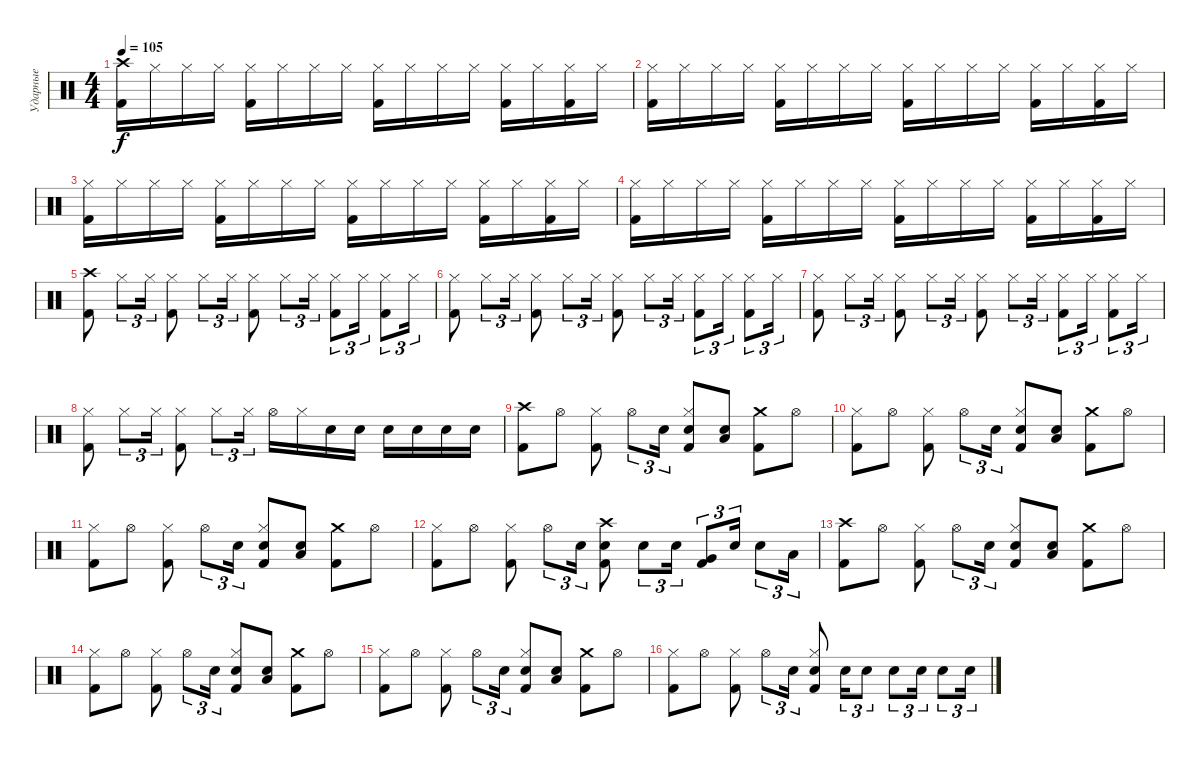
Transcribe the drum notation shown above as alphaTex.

\track ("Ударные" "Ударные") {instrument percussion}
\staff {score}
\articulation defaults
\ts (4 4)
\tempo 105
\clef neutral
\ks c
("Crash high (hit)" "Kick (hit) 2").16{dy f} "Hi-Hat (closed)".16 "Hi-Hat (closed)".16 "Hi-Hat (closed)".16 ("Hi-Hat (closed)" "Kick (hit) 2").16 "Hi-Hat (closed)".16 "Hi-Hat (closed)".16 "Hi-Hat (closed)".16 ("Hi-Hat (closed)" "Kick (hit) 2").16 "Hi-Hat (closed)".16 "Hi-Hat (closed)".16 "Hi-Hat (closed)".16 ("Hi-Hat (closed)" "Kick (hit) 2").16 "Hi-Hat (closed)".16 ("Hi-Hat (closed)" "Kick (hit) 2").16 "Hi-Hat (closed)".16 |
("Hi-Hat (closed)" "Kick (hit) 2").16 "Hi-Hat (closed)".16 "Hi-Hat (closed)".16 "Hi-Hat (closed)".16 ("Hi-Hat (closed)" "Kick (hit) 2").16 "Hi-Hat (closed)".16 "Hi-Hat (closed)".16 "Hi-Hat (closed)".16 ("Hi-Hat (closed)" "Kick (hit) 2").16 "Hi-Hat (closed)".16 "Hi-Hat (closed)".16 "Hi-Hat (closed)".16 ("Hi-Hat (closed)" "Kick (hit) 2").16 "Hi-Hat (closed)".16 ("Hi-Hat (closed)" "Kick (hit) 2").16 "Hi-Hat (closed)".16 |
("Hi-Hat (closed)" "Kick (hit) 2").16 "Hi-Hat (closed)".16 "Hi-Hat (closed)".16 "Hi-Hat (closed)".16 ("Hi-Hat (closed)" "Kick (hit) 2").16 "Hi-Hat (closed)".16 "Hi-Hat (closed)".16 "Hi-Hat (closed)".16 ("Hi-Hat (closed)" "Kick (hit) 2").16 "Hi-Hat (closed)".16 "Hi-Hat (closed)".16 "Hi-Hat (closed)".16 ("Hi-Hat (closed)" "Kick (hit) 2").16 "Hi-Hat (closed)".16 ("Hi-Hat (closed)" "Kick (hit) 2").16 "Hi-Hat (closed)".16 |
("Hi-Hat (closed)" "Kick (hit) 2").16 "Hi-Hat (closed)".16 "Hi-Hat (closed)".16 "Hi-Hat (closed)".16 ("Hi-Hat (closed)" "Kick (hit) 2").16 "Hi-Hat (closed)".16 "Hi-Hat (closed)".16 "Hi-Hat (closed)".16 ("Hi-Hat (closed)" "Kick (hit) 2").16 "Hi-Hat (closed)".16 "Hi-Hat (closed)".16 "Hi-Hat (closed)".16 ("Hi-Hat (closed)" "Kick (hit) 2").16 "Hi-Hat (closed)".16 ("Hi-Hat (closed)" "Kick (hit) 2").16 "Hi-Hat (closed)".16 |
("Crash high (hit)" "Kick (hit) 2").8 "Hi-Hat (closed)".8{tu (3 2)} "Hi-Hat (closed)".16{tu (3 2)} ("Hi-Hat (closed)" "Kick (hit) 2").8 "Hi-Hat (closed)".8{tu (3 2)} "Hi-Hat (closed)".16{tu (3 2)} ("Hi-Hat (closed)" "Kick (hit) 2").8 "Hi-Hat (closed)".8{tu (3 2)} "Hi-Hat (closed)".16{tu (3 2)} ("Hi-Hat (closed)" "Kick (hit) 2").8{tu (3 2)} "Hi-Hat (closed)".16{tu (3 2)} ("Hi-Hat (closed)" "Kick (hit) 2").8{tu (3 2)} "Hi-Hat (closed)".16{tu (3 2)} |
("Hi-Hat (closed)" "Kick (hit) 2").8 "Hi-Hat (closed)".8{tu (3 2)} "Hi-Hat (closed)".16{tu (3 2)} ("Hi-Hat (closed)" "Kick (hit) 2").8 "Hi-Hat (closed)".8{tu (3 2)} "Hi-Hat (closed)".16{tu (3 2)} ("Hi-Hat (closed)" "Kick (hit) 2").8 "Hi-Hat (closed)".8{tu (3 2)} "Hi-Hat (closed)".16{tu (3 2)} ("Hi-Hat (closed)" "Kick (hit) 2").8{tu (3 2)} "Hi-Hat (closed)".16{tu (3 2)} ("Hi-Hat (closed)" "Kick (hit) 2").8{tu (3 2)} "Hi-Hat (closed)".16{tu (3 2)} |
("Hi-Hat (closed)" "Kick (hit) 2").8 "Hi-Hat (closed)".8{tu (3 2)} "Hi-Hat (closed)".16{tu (3 2)} ("Hi-Hat (closed)" "Kick (hit) 2").8 "Hi-Hat (closed)".8{tu (3 2)} "Hi-Hat (closed)".16{tu (3 2)} ("Hi-Hat (closed)" "Kick (hit) 2").8 "Hi-Hat (closed)".8{tu (3 2)} "Hi-Hat (closed)".16{tu (3 2)} ("Hi-Hat (closed)" "Kick (hit) 2").8{tu (3 2)} "Hi-Hat (closed)".16{tu (3 2)} ("Hi-Hat (closed)" "Kick (hit) 2").8{tu (3 2)} "Hi-Hat (closed)".16{tu (3 2)} |
("Hi-Hat (closed)" "Kick (hit) 2").8 "Hi-Hat (closed)".8{tu (3 2)} "Hi-Hat (closed)".16{tu (3 2)} ("Hi-Hat (closed)" "Kick (hit) 2").8 "Hi-Hat (closed)".8{tu (3 2)} "Hi-Hat (closed)".16{tu (3 2)} "Hi-Hat (open)".16 "Hi-Hat (closed)".16 "Electric Snare (hit)".16 "Electric Snare (hit)".16 "Electric Snare (hit)".16 "Electric Snare (hit)".16 "Electric Snare (hit)".16 "Electric Snare (hit)".16 |
("Crash high (hit)" "Kick (hit) 2").8 "Hi-Hat (open)".8 ("Hi-Hat (closed)" "Kick (hit) 2").8 "Hi-Hat (open)".8{tu (3 2)} "Electric Snare (hit)".16{tu (3 2)} ("Hi-Hat (closed)" "Electric Snare (hit)" "Kick (hit) 2").8 ("Electric Snare (hit)" "Low Floor Tom (hit)").8 ("Crash medium (hit)" "Kick (hit) 2").8 "Hi-Hat (open)".8 |
("Hi-Hat (closed)" "Kick (hit) 2").8 "Hi-Hat (open)".8 ("Hi-Hat (closed)" "Kick (hit) 2").8 "Hi-Hat (open)".8{tu (3 2)} "Electric Snare (hit)".16{tu (3 2)} ("Hi-Hat (closed)" "Electric Snare (hit)" "Kick (hit) 2").8 ("Electric Snare (hit)" "Low Floor Tom (hit)").8 ("Crash medium (hit)" "Kick (hit) 2").8 "Hi-Hat (open)".8 |
("Hi-Hat (closed)" "Kick (hit) 2").8 "Hi-Hat (open)".8 ("Hi-Hat (closed)" "Kick (hit) 2").8 "Hi-Hat (open)".8{tu (3 2)} "Electric Snare (hit)".16{tu (3 2)} ("Hi-Hat (closed)" "Electric Snare (hit)" "Kick (hit) 2").8 ("Electric Snare (hit)" "Low Floor Tom (hit)").8 ("Crash medium (hit)" "Kick (hit) 2").8 "Hi-Hat (open)".8 |
("Hi-Hat (closed)" "Kick (hit) 2").8 "Hi-Hat (open)".8 ("Hi-Hat (closed)" "Kick (hit) 2").8 "Hi-Hat (open)".8{tu (3 2)} "Electric Snare (hit)".16{tu (3 2)} ("Crash high (hit)" "Electric Snare (hit)" "Kick (hit) 2").8 "Electric Snare (hit)".8{tu (3 2)} "Electric Snare (hit)".16{tu (3 2)} ("Very Low Tom (hit)" "Kick (hit) 2").8{tu (3 2)} "Electric Snare (hit)".16{tu (3 2)} "Electric Snare (hit)".8{tu (3 2)} "Low Floor Tom (hit)".16{tu (3 2)} |
("Crash high (hit)" "Kick (hit) 2").8 "Hi-Hat (open)".8 ("Hi-Hat (closed)" "Kick (hit) 2").8 "Hi-Hat (open)".8{tu (3 2)} "Electric Snare (hit)".16{tu (3 2)} ("Hi-Hat (closed)" "Electric Snare (hit)" "Kick (hit) 2").8 ("Electric Snare (hit)" "Low Floor Tom (hit)").8 ("Crash medium (hit)" "Kick (hit) 2").8 "Hi-Hat (open)".8 |
("Hi-Hat (closed)" "Kick (hit) 2").8 "Hi-Hat (open)".8 ("Hi-Hat (closed)" "Kick (hit) 2").8 "Hi-Hat (open)".8{tu (3 2)} "Electric Snare (hit)".16{tu (3 2)} ("Hi-Hat (closed)" "Electric Snare (hit)" "Kick (hit) 2").8 ("Electric Snare (hit)" "Low Floor Tom (hit)").8 ("Crash medium (hit)" "Kick (hit) 2").8 "Hi-Hat (open)".8 |
("Hi-Hat (closed)" "Kick (hit) 2").8 "Hi-Hat (open)".8 ("Hi-Hat (closed)" "Kick (hit) 2").8 "Hi-Hat (open)".8{tu (3 2)} "Electric Snare (hit)".16{tu (3 2)} ("Hi-Hat (closed)" "Electric Snare (hit)" "Kick (hit) 2").8 ("Electric Snare (hit)" "Low Floor Tom (hit)").8 ("Crash medium (hit)" "Kick (hit) 2").8 "Hi-Hat (open)".8 |
("Hi-Hat (closed)" "Kick (hit) 2").8 "Hi-Hat (open)".8 ("Hi-Hat (closed)" "Kick (hit) 2").8 "Hi-Hat (open)".8{tu (3 2)} "Electric Snare (hit)".16{tu (3 2)} ("Hi-Hat (closed)" "Electric Snare (hit)" "Kick (hit) 2").8 "Electric Snare (hit)".16{tu (3 2)} "Electric Snare (hit)".8{tu (3 2)} "Electric Snare (hit)".8{tu (3 2)} "Electric Snare (hit)".16{tu (3 2)} "Electric Snare (hit)".8{tu (3 2)} "Electric Snare (hit)".16{tu (3 2)}
